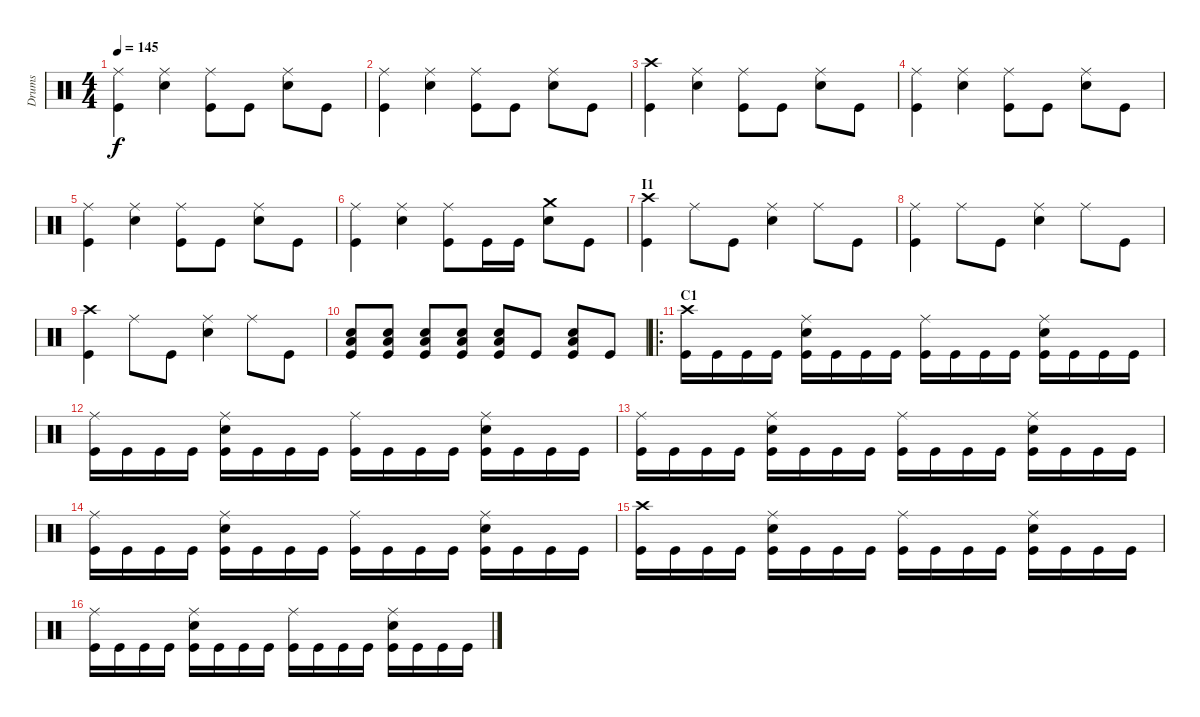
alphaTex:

\track ("Drums" "Drums") {instrument percussion}
\staff {score}
\articulation defaults
\ts (4 4)
\tempo 145
\clef neutral
\ks c
("Ride (middle)" "Kick (hit)").4{dy f} ("Ride (middle)" "Snare (hit) 2").4 ("Ride (middle)" "Kick (hit)").8 "Kick (hit)".8 ("Ride (middle)" "Snare (hit) 2").8 "Kick (hit)".8 |
("Ride (middle)" "Kick (hit)").4 ("Ride (middle)" "Snare (hit) 2").4 ("Ride (middle)" "Kick (hit)").8 "Kick (hit)".8 ("Ride (middle)" "Snare (hit) 2").8 "Kick (hit)".8 |
("Crash high (hit)" "Kick (hit)").4 ("Ride (middle)" "Snare (hit) 2").4 ("Ride (middle)" "Kick (hit)").8 "Kick (hit)".8 ("Ride (middle)" "Snare (hit) 2").8 "Kick (hit)".8 |
("Ride (middle)" "Kick (hit)").4 ("Ride (middle)" "Snare (hit) 2").4 ("Ride (middle)" "Kick (hit)").8 "Kick (hit)".8 ("Ride (middle)" "Snare (hit) 2").8 "Kick (hit)".8 |
("Ride (middle)" "Kick (hit)").4 ("Ride (middle)" "Snare (hit) 2").4 ("Ride (middle)" "Kick (hit)").8 "Kick (hit)".8 ("Ride (middle)" "Snare (hit) 2").8 "Kick (hit)".8 |
("Ride (middle)" "Kick (hit)").4 ("Ride (middle)" "Snare (hit) 2").4 ("Ride (middle)" "Kick (hit)").8 "Kick (hit)".16 "Kick (hit)".16 ("Crash medium (hit)" "Snare (hit) 2").8 "Kick (hit)".8 |
\section ("" "I1")
("Crash high (hit)" "Kick (hit)").4 "Ride (middle)".8 "Kick (hit)".8 ("Ride (middle)" "Snare (hit) 2").4 "Ride (middle)".8 "Kick (hit)".8 |
("Ride (middle)" "Kick (hit)").4 "Ride (middle)".8 "Kick (hit)".8 ("Ride (middle)" "Snare (hit) 2").4 "Ride (middle)".8 "Kick (hit)".8 |
("Crash high (hit)" "Kick (hit)").4 "Ride (middle)".8 "Kick (hit)".8 ("Ride (middle)" "Snare (hit) 2").4 "Ride (middle)".8 "Kick (hit)".8 |
("Low Floor Tom (hit)" "Snare (hit) 2" "Kick (hit)").8 ("Low Floor Tom (hit)" "Snare (hit) 2" "Kick (hit)").8 ("Low Floor Tom (hit)" "Snare (hit) 2" "Kick (hit)").8 ("Low Floor Tom (hit)" "Snare (hit) 2" "Kick (hit)").8 ("Low Floor Tom (hit)" "Snare (hit) 2" "Kick (hit)").8 "Kick (hit)".8 ("Low Floor Tom (hit)" "Snare (hit) 2" "Kick (hit)").8 "Kick (hit)".8 |
\ro
\section ("" "C1")
("Crash high (hit)" "Kick (hit)").16 "Kick (hit)".16 "Kick (hit)".16 "Kick (hit)".16 ("Ride (middle)" "Snare (hit) 2" "Kick (hit)").16 "Kick (hit)".16 "Kick (hit)".16 "Kick (hit)".16 ("Ride (middle)" "Kick (hit)").16 "Kick (hit)".16 "Kick (hit)".16 "Kick (hit)".16 ("Ride (middle)" "Snare (hit) 2" "Kick (hit)").16 "Kick (hit)".16 "Kick (hit)".16 "Kick (hit)".16 |
("Ride (middle)" "Kick (hit)").16 "Kick (hit)".16 "Kick (hit)".16 "Kick (hit)".16 ("Ride (middle)" "Snare (hit) 2" "Kick (hit)").16 "Kick (hit)".16 "Kick (hit)".16 "Kick (hit)".16 ("Ride (middle)" "Kick (hit)").16 "Kick (hit)".16 "Kick (hit)".16 "Kick (hit)".16 ("Ride (middle)" "Snare (hit) 2" "Kick (hit)").16 "Kick (hit)".16 "Kick (hit)".16 "Kick (hit)".16 |
("Ride (middle)" "Kick (hit)").16 "Kick (hit)".16 "Kick (hit)".16 "Kick (hit)".16 ("Ride (middle)" "Snare (hit) 2" "Kick (hit)").16 "Kick (hit)".16 "Kick (hit)".16 "Kick (hit)".16 ("Ride (middle)" "Kick (hit)").16 "Kick (hit)".16 "Kick (hit)".16 "Kick (hit)".16 ("Ride (middle)" "Snare (hit) 2" "Kick (hit)").16 "Kick (hit)".16 "Kick (hit)".16 "Kick (hit)".16 |
("Ride (middle)" "Kick (hit)").16 "Kick (hit)".16 "Kick (hit)".16 "Kick (hit)".16 ("Ride (middle)" "Snare (hit) 2" "Kick (hit)").16 "Kick (hit)".16 "Kick (hit)".16 "Kick (hit)".16 ("Ride (middle)" "Kick (hit)").16 "Kick (hit)".16 "Kick (hit)".16 "Kick (hit)".16 ("Ride (middle)" "Snare (hit) 2" "Kick (hit)").16 "Kick (hit)".16 "Kick (hit)".16 "Kick (hit)".16 |
("Crash high (hit)" "Kick (hit)").16 "Kick (hit)".16 "Kick (hit)".16 "Kick (hit)".16 ("Ride (middle)" "Snare (hit) 2" "Kick (hit)").16 "Kick (hit)".16 "Kick (hit)".16 "Kick (hit)".16 ("Ride (middle)" "Kick (hit)").16 "Kick (hit)".16 "Kick (hit)".16 "Kick (hit)".16 ("Ride (middle)" "Snare (hit) 2" "Kick (hit)").16 "Kick (hit)".16 "Kick (hit)".16 "Kick (hit)".16 |
("Ride (middle)" "Kick (hit)").16 "Kick (hit)".16 "Kick (hit)".16 "Kick (hit)".16 ("Ride (middle)" "Snare (hit) 2" "Kick (hit)").16 "Kick (hit)".16 "Kick (hit)".16 "Kick (hit)".16 ("Ride (middle)" "Kick (hit)").16 "Kick (hit)".16 "Kick (hit)".16 "Kick (hit)".16 ("Ride (middle)" "Snare (hit) 2" "Kick (hit)").16 "Kick (hit)".16 "Kick (hit)".16 "Kick (hit)".16
